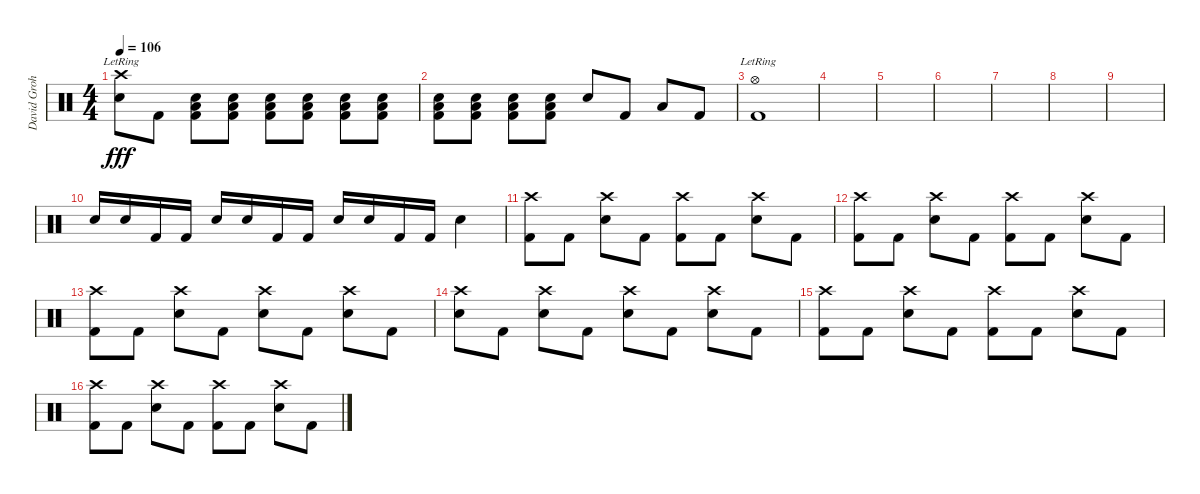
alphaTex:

\track ("David Grohl 2 Crash Style !!" "David Groh") {instrument percussion}
\staff {score}
\articulation defaults
\ts (4 4)
\tempo 106
\clef neutral
\ks c
("Crash high (hit)"{lr} "Snare (hit) 2").8{dy fff} "Kick (hit) 2".8 ("Snare (hit) 2" "Low Tom (hit)" "Kick (hit) 2").8 ("Snare (hit) 2" "Low Tom (hit)" "Kick (hit) 2").8 ("Snare (hit) 2" "Low Tom (hit)" "Kick (hit) 2").8 ("Snare (hit) 2" "Low Tom (hit)" "Kick (hit) 2").8 ("Snare (hit) 2" "Low Tom (hit)" "Kick (hit) 2").8 ("Snare (hit) 2" "Low Tom (hit)" "Kick (hit) 2").8 |
("Snare (hit) 2" "Low Tom (hit)" "Kick (hit) 2").8 ("Snare (hit) 2" "Low Tom (hit)" "Kick (hit) 2").8 ("Snare (hit) 2" "Low Tom (hit)" "Kick (hit) 2").8 ("Snare (hit) 2" "Low Tom (hit)" "Kick (hit) 2").8 "Snare (hit) 2".8 "Kick (hit) 2".8 "Low Tom (hit)".8 "Kick (hit) 2".8 |
("Hi-Hat (open)"{lr} "Kick (hit) 2").1 |
|
|
|
|
|
|
"Snare (hit) 2".16 "Snare (hit) 2".16 "Kick (hit) 2".16 "Kick (hit) 2".16 "Snare (hit) 2".16 "Snare (hit) 2".16 "Kick (hit) 2".16 "Kick (hit) 2".16 "Snare (hit) 2".16 "Snare (hit) 2".16 "Kick (hit) 2".16 "Kick (hit) 2".16 "Snare (hit) 2".4 |
("Crash high (hit)" "Kick (hit) 2").8 "Kick (hit) 2".8 ("Crash high (hit)" "Snare (hit) 2").8 "Kick (hit) 2".8 ("Crash high (hit)" "Kick (hit) 2").8 "Kick (hit) 2".8 ("Crash high (hit)" "Snare (hit) 2").8 "Kick (hit) 2".8 |
("Crash high (hit)" "Kick (hit) 2").8 "Kick (hit) 2".8 ("Crash high (hit)" "Snare (hit) 2").8 "Kick (hit) 2".8 ("Crash high (hit)" "Kick (hit) 2").8 "Kick (hit) 2".8 ("Crash high (hit)" "Snare (hit) 2").8 "Kick (hit) 2".8 |
("Crash high (hit)" "Kick (hit) 2").8 "Kick (hit) 2".8 ("Crash high (hit)" "Snare (hit) 2").8 "Kick (hit) 2".8 ("Crash high (hit)" "Snare (hit) 2").8 "Kick (hit) 2".8 ("Crash high (hit)" "Snare (hit) 2").8 "Kick (hit) 2".8 |
("Crash high (hit)" "Snare (hit) 2").8 "Kick (hit) 2".8 ("Crash high (hit)" "Snare (hit) 2").8 "Kick (hit) 2".8 ("Crash high (hit)" "Snare (hit) 2").8 "Kick (hit) 2".8 ("Crash high (hit)" "Snare (hit) 2").8 "Kick (hit) 2".8 |
("Crash high (hit)" "Kick (hit) 2").8 "Kick (hit) 2".8 ("Crash high (hit)" "Snare (hit) 2").8 "Kick (hit) 2".8 ("Crash high (hit)" "Kick (hit) 2").8 "Kick (hit) 2".8 ("Crash high (hit)" "Snare (hit) 2").8 "Kick (hit) 2".8 |
("Crash high (hit)" "Kick (hit) 2").8 "Kick (hit) 2".8 ("Crash high (hit)" "Snare (hit) 2").8 "Kick (hit) 2".8 ("Crash high (hit)" "Kick (hit) 2").8 "Kick (hit) 2".8 ("Crash high (hit)" "Snare (hit) 2").8 "Kick (hit) 2".8
